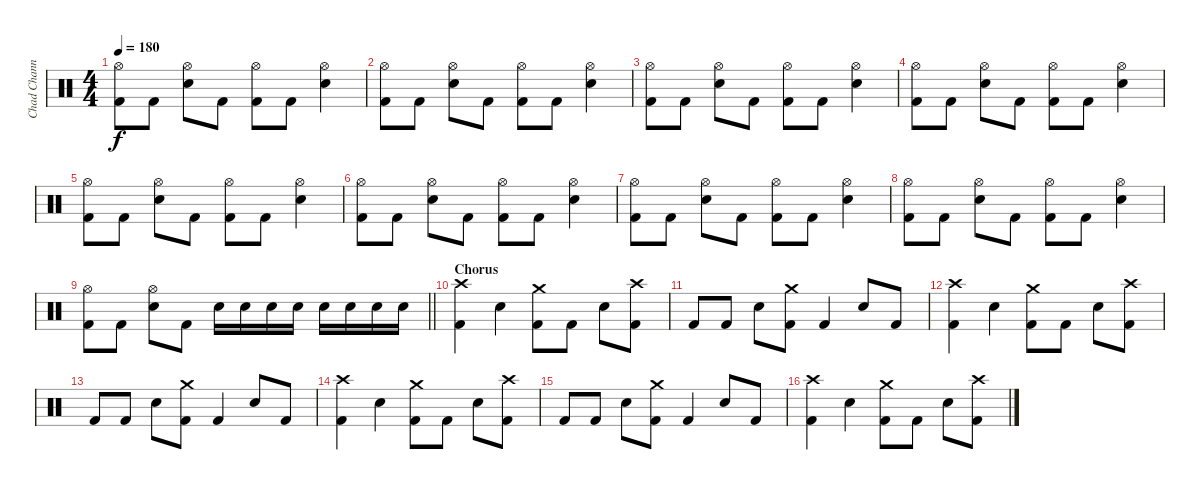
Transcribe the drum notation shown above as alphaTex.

\track ("Chad Channing" "Chad Chann") {instrument percussion}
\staff {score}
\articulation defaults
\ts (4 4)
\tempo 180
\clef neutral
\ks c
("Hi-Hat (open)" "Kick (hit) 2").8{dy f} "Kick (hit) 2".8 ("Hi-Hat (open)" "Snare (hit) 2").8 "Kick (hit) 2".8 ("Hi-Hat (open)" "Kick (hit) 2").8 "Kick (hit) 2".8 ("Hi-Hat (open)" "Snare (hit) 2").4 |
("Hi-Hat (open)" "Kick (hit) 2").8 "Kick (hit) 2".8 ("Hi-Hat (open)" "Snare (hit) 2").8 "Kick (hit) 2".8 ("Hi-Hat (open)" "Kick (hit) 2").8 "Kick (hit) 2".8 ("Hi-Hat (open)" "Snare (hit) 2").4 |
("Hi-Hat (open)" "Kick (hit) 2").8 "Kick (hit) 2".8 ("Hi-Hat (open)" "Snare (hit) 2").8 "Kick (hit) 2".8 ("Hi-Hat (open)" "Kick (hit) 2").8 "Kick (hit) 2".8 ("Hi-Hat (open)" "Snare (hit) 2").4 |
("Hi-Hat (open)" "Kick (hit) 2").8 "Kick (hit) 2".8 ("Hi-Hat (open)" "Snare (hit) 2").8 "Kick (hit) 2".8 ("Hi-Hat (open)" "Kick (hit) 2").8 "Kick (hit) 2".8 ("Hi-Hat (open)" "Snare (hit) 2").4 |
("Hi-Hat (open)" "Kick (hit) 2").8 "Kick (hit) 2".8 ("Hi-Hat (open)" "Snare (hit) 2").8 "Kick (hit) 2".8 ("Hi-Hat (open)" "Kick (hit) 2").8 "Kick (hit) 2".8 ("Hi-Hat (open)" "Snare (hit) 2").4 |
("Hi-Hat (open)" "Kick (hit) 2").8 "Kick (hit) 2".8 ("Hi-Hat (open)" "Snare (hit) 2").8 "Kick (hit) 2".8 ("Hi-Hat (open)" "Kick (hit) 2").8 "Kick (hit) 2".8 ("Hi-Hat (open)" "Snare (hit) 2").4 |
("Hi-Hat (open)" "Kick (hit) 2").8 "Kick (hit) 2".8 ("Hi-Hat (open)" "Snare (hit) 2").8 "Kick (hit) 2".8 ("Hi-Hat (open)" "Kick (hit) 2").8 "Kick (hit) 2".8 ("Hi-Hat (open)" "Snare (hit) 2").4 |
("Hi-Hat (open)" "Kick (hit) 2").8 "Kick (hit) 2".8 ("Hi-Hat (open)" "Snare (hit) 2").8 "Kick (hit) 2".8 ("Hi-Hat (open)" "Kick (hit) 2").8 "Kick (hit) 2".8 ("Hi-Hat (open)" "Snare (hit) 2").4 |
\barLineRight lightlight
("Hi-Hat (open)" "Kick (hit) 2").8 "Kick (hit) 2".8 ("Hi-Hat (open)" "Snare (hit) 2").8 "Kick (hit) 2".8 "Snare (hit) 2".16 "Snare (hit) 2".16 "Snare (hit) 2".16 "Snare (hit) 2".16 "Snare (hit) 2".16 "Snare (hit) 2".16 "Snare (hit) 2".16 "Snare (hit) 2".16 |
\section ("" "Chorus")
("Crash high (hit)" "Kick (hit) 2").4 "Snare (hit) 2".4 ("Crash medium (hit)" "Kick (hit) 2").8 "Kick (hit) 2".8 "Snare (hit) 2".8 ("Crash high (hit)" "Kick (hit) 2").8 |
"Kick (hit) 2".8 "Kick (hit) 2".8 "Snare (hit) 2".8 ("Crash medium (hit)" "Kick (hit) 2").8 "Kick (hit) 2".4 "Snare (hit) 2".8 "Kick (hit) 2".8 |
("Crash high (hit)" "Kick (hit) 2").4 "Snare (hit) 2".4 ("Crash medium (hit)" "Kick (hit) 2").8 "Kick (hit) 2".8 "Snare (hit) 2".8 ("Crash high (hit)" "Kick (hit) 2").8 |
"Kick (hit) 2".8 "Kick (hit) 2".8 "Snare (hit) 2".8 ("Crash medium (hit)" "Kick (hit) 2").8 "Kick (hit) 2".4 "Snare (hit) 2".8 "Kick (hit) 2".8 |
("Crash high (hit)" "Kick (hit) 2").4 "Snare (hit) 2".4 ("Crash medium (hit)" "Kick (hit) 2").8 "Kick (hit) 2".8 "Snare (hit) 2".8 ("Crash high (hit)" "Kick (hit) 2").8 |
"Kick (hit) 2".8 "Kick (hit) 2".8 "Snare (hit) 2".8 ("Crash medium (hit)" "Kick (hit) 2").8 "Kick (hit) 2".4 "Snare (hit) 2".8 "Kick (hit) 2".8 |
("Crash high (hit)" "Kick (hit) 2").4 "Snare (hit) 2".4 ("Crash medium (hit)" "Kick (hit) 2").8 "Kick (hit) 2".8 "Snare (hit) 2".8 ("Crash high (hit)" "Kick (hit) 2").8
